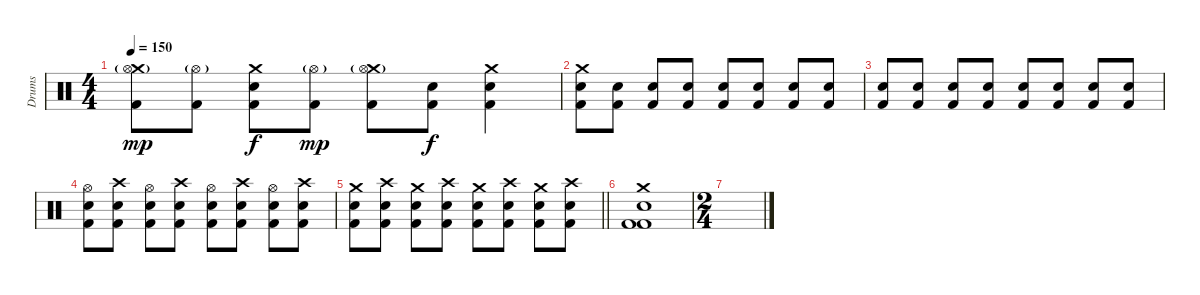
\track ("Drums" "Drums") {instrument percussion}
\staff {score}
\articulation defaults
\ts (4 4)
\tempo 150
\clef neutral
\ks c
("Crash medium (hit)" "Hi-Hat (open)"{g} "Kick (hit) 2").8{dy mp} ("Hi-Hat (open)"{g} "Kick (hit) 2").8 ("Crash medium (hit)" "Electric Snare (hit)" "Kick (hit) 2").8{dy f} ("Hi-Hat (open)"{g} "Kick (hit) 2").8{dy mp} ("Crash medium (hit)" "Hi-Hat (open)"{g} "Kick (hit) 2").8 ("Electric Snare (hit)" "Kick (hit) 2").8{dy f} ("Crash medium (hit)" "Electric Snare (hit)" "Kick (hit) 2").4 |
("Crash medium (hit)" "Electric Snare (hit)" "Kick (hit) 2").8 ("Electric Snare (hit)" "Kick (hit) 2").8 ("Electric Snare (hit)" "Kick (hit) 2").8 ("Electric Snare (hit)" "Kick (hit) 2").8 ("Electric Snare (hit)" "Kick (hit) 2").8 ("Electric Snare (hit)" "Kick (hit) 2").8 ("Electric Snare (hit)" "Kick (hit) 2").8 ("Electric Snare (hit)" "Kick (hit) 2").8 |
("Electric Snare (hit)" "Kick (hit) 2").8 ("Electric Snare (hit)" "Kick (hit) 2").8 ("Electric Snare (hit)" "Kick (hit) 2").8 ("Electric Snare (hit)" "Kick (hit) 2").8 ("Electric Snare (hit)" "Kick (hit) 2").8 ("Electric Snare (hit)" "Kick (hit) 2").8 ("Electric Snare (hit)" "Kick (hit) 2").8 ("Electric Snare (hit)" "Kick (hit) 2").8 |
("Hi-Hat (open)" "Electric Snare (hit)" "Kick (hit) 2").8 ("Crash high (hit)" "Electric Snare (hit)" "Kick (hit) 2").8 ("Hi-Hat (open)" "Electric Snare (hit)" "Kick (hit) 2").8 ("Crash high (hit)" "Electric Snare (hit)" "Kick (hit) 2").8 ("Hi-Hat (open)" "Electric Snare (hit)" "Kick (hit) 2").8 ("Crash high (hit)" "Electric Snare (hit)" "Kick (hit) 2").8 ("Hi-Hat (open)" "Electric Snare (hit)" "Kick (hit) 2").8 ("Crash high (hit)" "Electric Snare (hit)" "Kick (hit) 2").8 |
\barLineRight lightlight
("Crash medium (hit)" "Electric Snare (hit)" "Kick (hit) 2").8 ("Crash high (hit)" "Electric Snare (hit)" "Kick (hit) 2").8 ("Crash medium (hit)" "Electric Snare (hit)" "Kick (hit) 2").8 ("Crash high (hit)" "Electric Snare (hit)" "Kick (hit) 2").8 ("Crash medium (hit)" "Electric Snare (hit)" "Kick (hit) 2").8 ("Crash high (hit)" "Electric Snare (hit)" "Kick (hit) 2").8 ("Crash medium (hit)" "Electric Snare (hit)" "Kick (hit) 2").8 ("Crash high (hit)" "Electric Snare (hit)" "Kick (hit) 2").8 |
("Crash medium (hit)" "Electric Snare (hit)" "Kick (hit) 2" "Kick (hit) 2").1 |
\ts (2 4)
